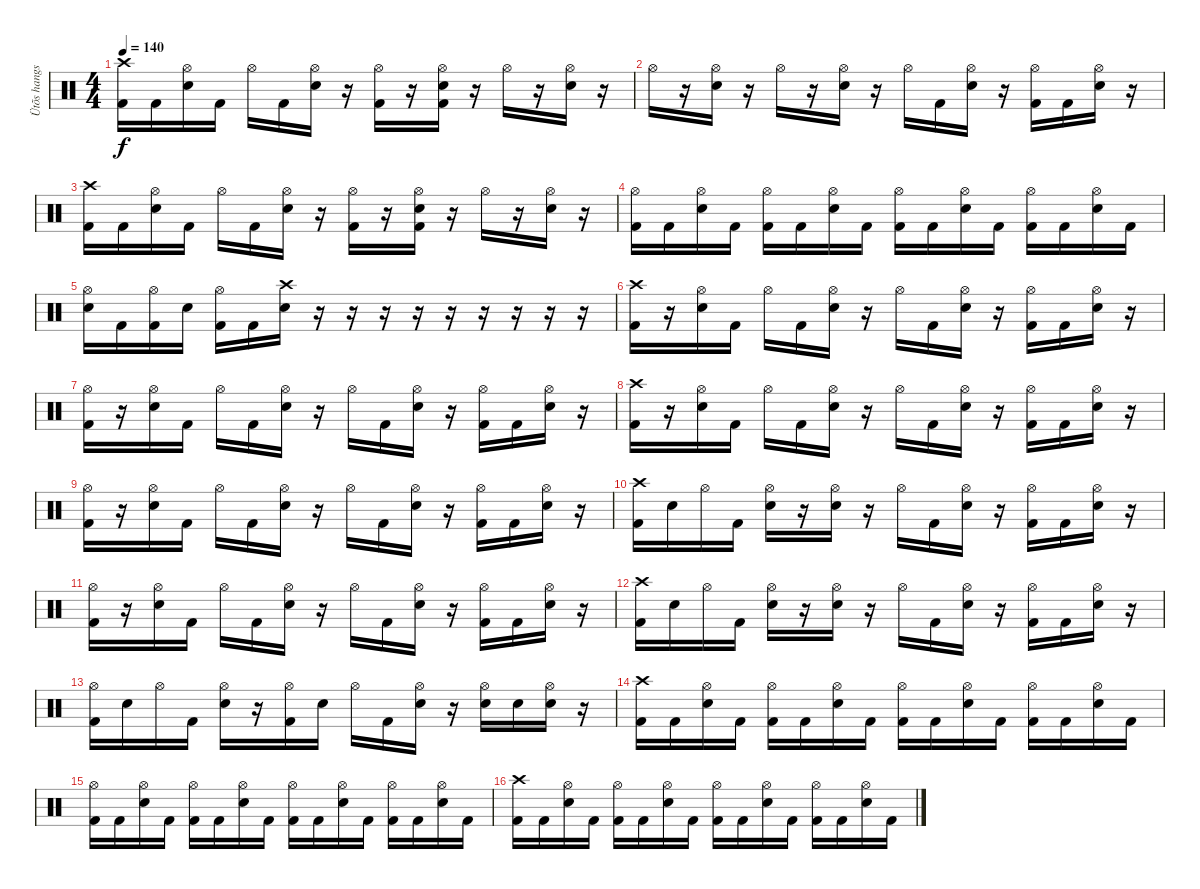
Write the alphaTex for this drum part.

\track ("Ütõs hangszer" "Ütõs hangs") {instrument percussion}
\staff {score}
\articulation defaults
\ts (4 4)
\tempo 140
\clef neutral
\ks c
("Crash high (hit)" "Kick (hit) 2").16{dy f} "Kick (hit) 2".16 ("Hi-Hat (open)" "Snare (hit) 2").16 "Kick (hit) 2".16 "Hi-Hat (open)".16 "Kick (hit) 2".16 ("Hi-Hat (open)" "Snare (hit) 2").16 r.16 ("Hi-Hat (open)" "Kick (hit) 2").16 r.16 ("Hi-Hat (open)" "Snare (hit) 2" "Kick (hit) 2").16 r.16 "Hi-Hat (open)".16 r.16 ("Hi-Hat (open)" "Snare (hit) 2").16 r.16 |
"Hi-Hat (open)".16 r.16 ("Hi-Hat (open)" "Snare (hit) 2").16 r.16 "Hi-Hat (open)".16 r.16 ("Hi-Hat (open)" "Snare (hit) 2").16 r.16 "Hi-Hat (open)".16 "Kick (hit) 2".16 ("Hi-Hat (open)" "Snare (hit) 2").16 r.16 ("Hi-Hat (open)" "Kick (hit) 2").16 "Kick (hit) 2".16 ("Hi-Hat (open)" "Snare (hit) 2").16 r.16 |
("Crash high (hit)" "Kick (hit) 2").16 "Kick (hit) 2".16 ("Hi-Hat (open)" "Snare (hit) 2").16 "Kick (hit) 2".16 "Hi-Hat (open)".16 "Kick (hit) 2".16 ("Hi-Hat (open)" "Snare (hit) 2").16 r.16 ("Hi-Hat (open)" "Kick (hit) 2").16 r.16 ("Hi-Hat (open)" "Snare (hit) 2" "Kick (hit) 2").16 r.16 "Hi-Hat (open)".16 r.16 ("Hi-Hat (open)" "Snare (hit) 2").16 r.16 |
("Hi-Hat (open)" "Kick (hit) 2").16 "Kick (hit) 2".16 ("Hi-Hat (open)" "Snare (hit) 2").16 "Kick (hit) 2".16 ("Hi-Hat (open)" "Kick (hit) 2").16 "Kick (hit) 2".16 ("Hi-Hat (open)" "Snare (hit) 2").16 "Kick (hit) 2".16 ("Hi-Hat (open)" "Kick (hit) 2").16 "Kick (hit) 2".16 ("Hi-Hat (open)" "Snare (hit) 2").16 "Kick (hit) 2".16 ("Hi-Hat (open)" "Kick (hit) 2").16 "Kick (hit) 2".16 ("Hi-Hat (open)" "Snare (hit) 2").16 "Kick (hit) 2".16 |
("Hi-Hat (open)" "Snare (hit) 2").16 "Kick (hit) 2".16 ("Hi-Hat (open)" "Kick (hit) 2").16 "Snare (hit) 2".16 ("Hi-Hat (open)" "Kick (hit) 2").16 "Kick (hit) 2".16 ("Crash high (hit)" "Snare (hit) 2").16 r.16 r.16 r.16 r.16 r.16 r.16 r.16 r.16 r.16 |
("Crash high (hit)" "Kick (hit) 2").16 r.16 ("Hi-Hat (open)" "Snare (hit) 2").16 "Kick (hit) 2".16 "Hi-Hat (open)".16 "Kick (hit) 2".16 ("Hi-Hat (open)" "Snare (hit) 2").16 r.16 "Hi-Hat (open)".16 "Kick (hit) 2".16 ("Hi-Hat (open)" "Snare (hit) 2").16 r.16 ("Hi-Hat (open)" "Kick (hit) 2").16 "Kick (hit) 2".16 ("Hi-Hat (open)" "Snare (hit) 2").16 r.16 |
("Hi-Hat (open)" "Kick (hit) 2").16 r.16 ("Hi-Hat (open)" "Snare (hit) 2").16 "Kick (hit) 2".16 "Hi-Hat (open)".16 "Kick (hit) 2".16 ("Hi-Hat (open)" "Snare (hit) 2").16 r.16 "Hi-Hat (open)".16 "Kick (hit) 2".16 ("Hi-Hat (open)" "Snare (hit) 2").16 r.16 ("Hi-Hat (open)" "Kick (hit) 2").16 "Kick (hit) 2".16 ("Hi-Hat (open)" "Snare (hit) 2").16 r.16 |
("Crash high (hit)" "Kick (hit) 2").16 r.16 ("Hi-Hat (open)" "Snare (hit) 2").16 "Kick (hit) 2".16 "Hi-Hat (open)".16 "Kick (hit) 2".16 ("Hi-Hat (open)" "Snare (hit) 2").16 r.16 "Hi-Hat (open)".16 "Kick (hit) 2".16 ("Hi-Hat (open)" "Snare (hit) 2").16 r.16 ("Hi-Hat (open)" "Kick (hit) 2").16 "Kick (hit) 2".16 ("Hi-Hat (open)" "Snare (hit) 2").16 r.16 |
("Hi-Hat (open)" "Kick (hit) 2").16 r.16 ("Hi-Hat (open)" "Snare (hit) 2").16 "Kick (hit) 2".16 "Hi-Hat (open)".16 "Kick (hit) 2".16 ("Hi-Hat (open)" "Snare (hit) 2").16 r.16 "Hi-Hat (open)".16 "Kick (hit) 2".16 ("Hi-Hat (open)" "Snare (hit) 2").16 r.16 ("Hi-Hat (open)" "Kick (hit) 2").16 "Kick (hit) 2".16 ("Hi-Hat (open)" "Snare (hit) 2").16 r.16 |
("Crash high (hit)" "Kick (hit) 2").16 "Snare (hit) 2".16 "Hi-Hat (open)".16 "Kick (hit) 2".16 ("Hi-Hat (open)" "Snare (hit) 2").16 r.16 ("Hi-Hat (open)" "Snare (hit) 2").16 r.16 "Hi-Hat (open)".16 "Kick (hit) 2".16 ("Hi-Hat (open)" "Snare (hit) 2").16 r.16 ("Hi-Hat (open)" "Kick (hit) 2").16 "Kick (hit) 2".16 ("Hi-Hat (open)" "Snare (hit) 2").16 r.16 |
("Hi-Hat (open)" "Kick (hit) 2").16 r.16 ("Hi-Hat (open)" "Snare (hit) 2").16 "Kick (hit) 2".16 "Hi-Hat (open)".16 "Kick (hit) 2".16 ("Hi-Hat (open)" "Snare (hit) 2").16 r.16 "Hi-Hat (open)".16 "Kick (hit) 2".16 ("Hi-Hat (open)" "Snare (hit) 2").16 r.16 ("Hi-Hat (open)" "Kick (hit) 2").16 "Kick (hit) 2".16 ("Hi-Hat (open)" "Snare (hit) 2").16 r.16 |
("Crash high (hit)" "Kick (hit) 2").16 "Snare (hit) 2".16 "Hi-Hat (open)".16 "Kick (hit) 2".16 ("Hi-Hat (open)" "Snare (hit) 2").16 r.16 ("Hi-Hat (open)" "Snare (hit) 2").16 r.16 "Hi-Hat (open)".16 "Kick (hit) 2".16 ("Hi-Hat (open)" "Snare (hit) 2").16 r.16 ("Hi-Hat (open)" "Kick (hit) 2").16 "Kick (hit) 2".16 ("Hi-Hat (open)" "Snare (hit) 2").16 r.16 |
("Hi-Hat (open)" "Kick (hit) 2").16 "Snare (hit) 2".16 "Hi-Hat (open)".16 "Kick (hit) 2".16 ("Hi-Hat (open)" "Snare (hit) 2").16 r.16 ("Hi-Hat (open)" "Kick (hit) 2").16 "Snare (hit) 2".16 "Hi-Hat (open)".16 "Kick (hit) 2".16 ("Hi-Hat (open)" "Snare (hit) 2").16 r.16 ("Hi-Hat (open)" "Snare (hit) 2").16 "Snare (hit) 2".16 ("Hi-Hat (open)" "Snare (hit) 2").16 r.16 |
("Crash high (hit)" "Kick (hit) 2").16 "Kick (hit) 2".16 ("Hi-Hat (open)" "Snare (hit) 2").16 "Kick (hit) 2".16 ("Hi-Hat (open)" "Kick (hit) 2").16 "Kick (hit) 2".16 ("Hi-Hat (open)" "Snare (hit) 2").16 "Kick (hit) 2".16 ("Hi-Hat (open)" "Kick (hit) 2").16 "Kick (hit) 2".16 ("Hi-Hat (open)" "Snare (hit) 2").16 "Kick (hit) 2".16 ("Hi-Hat (open)" "Kick (hit) 2").16 "Kick (hit) 2".16 ("Hi-Hat (open)" "Snare (hit) 2").16 "Kick (hit) 2".16 |
("Hi-Hat (open)" "Kick (hit) 2").16 "Kick (hit) 2".16 ("Hi-Hat (open)" "Snare (hit) 2").16 "Kick (hit) 2".16 ("Hi-Hat (open)" "Kick (hit) 2").16 "Kick (hit) 2".16 ("Hi-Hat (open)" "Snare (hit) 2").16 "Kick (hit) 2".16 ("Hi-Hat (open)" "Kick (hit) 2").16 "Kick (hit) 2".16 ("Hi-Hat (open)" "Snare (hit) 2").16 "Kick (hit) 2".16 ("Hi-Hat (open)" "Kick (hit) 2").16 "Kick (hit) 2".16 ("Hi-Hat (open)" "Snare (hit) 2").16 "Kick (hit) 2".16 |
("Crash high (hit)" "Kick (hit) 2").16 "Kick (hit) 2".16 ("Hi-Hat (open)" "Snare (hit) 2").16 "Kick (hit) 2".16 ("Hi-Hat (open)" "Kick (hit) 2").16 "Kick (hit) 2".16 ("Hi-Hat (open)" "Snare (hit) 2").16 "Kick (hit) 2".16 ("Hi-Hat (open)" "Kick (hit) 2").16 "Kick (hit) 2".16 ("Hi-Hat (open)" "Snare (hit) 2").16 "Kick (hit) 2".16 ("Hi-Hat (open)" "Kick (hit) 2").16 "Kick (hit) 2".16 ("Hi-Hat (open)" "Snare (hit) 2").16 "Kick (hit) 2".16
